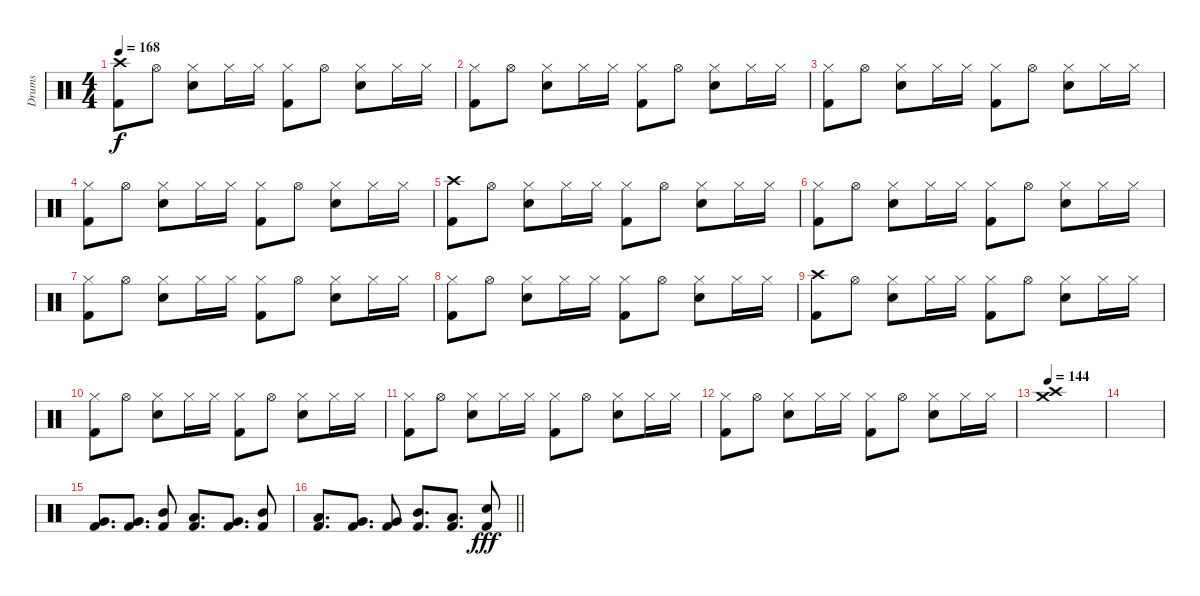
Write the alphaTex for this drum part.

\track ("Drums" "Drums") {instrument percussion}
\staff {score}
\articulation defaults
\ts (4 4)
\tempo 168
\clef neutral
\ks c
("Crash high (hit)" "Kick (hit) 2").8{dy f} "Hi-Hat (open)".8 ("Hi-Hat (closed)" "Electric Snare (hit)").8 "Hi-Hat (closed)".16 "Hi-Hat (closed)".16 ("Hi-Hat (closed)" "Kick (hit) 2").8 "Hi-Hat (open)".8 ("Hi-Hat (closed)" "Electric Snare (hit)").8 "Hi-Hat (closed)".16 "Hi-Hat (closed)".16 |
("Hi-Hat (closed)" "Kick (hit) 2").8 "Hi-Hat (open)".8 ("Hi-Hat (closed)" "Electric Snare (hit)").8 "Hi-Hat (closed)".16 "Hi-Hat (closed)".16 ("Hi-Hat (closed)" "Kick (hit) 2").8 "Hi-Hat (open)".8 ("Hi-Hat (closed)" "Electric Snare (hit)").8 "Hi-Hat (closed)".16 "Hi-Hat (closed)".16 |
("Hi-Hat (closed)" "Kick (hit) 2").8 "Hi-Hat (open)".8 ("Hi-Hat (closed)" "Electric Snare (hit)").8 "Hi-Hat (closed)".16 "Hi-Hat (closed)".16 ("Hi-Hat (closed)" "Kick (hit) 2").8 "Hi-Hat (open)".8 ("Hi-Hat (closed)" "Electric Snare (hit)").8 "Hi-Hat (closed)".16 "Hi-Hat (closed)".16 |
("Hi-Hat (closed)" "Kick (hit) 2").8 "Hi-Hat (open)".8 ("Hi-Hat (closed)" "Electric Snare (hit)").8 "Hi-Hat (closed)".16 "Hi-Hat (closed)".16 ("Hi-Hat (closed)" "Kick (hit) 2").8 "Hi-Hat (open)".8 ("Hi-Hat (closed)" "Electric Snare (hit)").8 "Hi-Hat (closed)".16 "Hi-Hat (closed)".16 |
("Crash high (hit)" "Kick (hit) 2").8 "Hi-Hat (open)".8 ("Hi-Hat (closed)" "Electric Snare (hit)").8 "Hi-Hat (closed)".16 "Hi-Hat (closed)".16 ("Hi-Hat (closed)" "Kick (hit) 2").8 "Hi-Hat (open)".8 ("Hi-Hat (closed)" "Electric Snare (hit)").8 "Hi-Hat (closed)".16 "Hi-Hat (closed)".16 |
("Hi-Hat (closed)" "Kick (hit) 2").8 "Hi-Hat (open)".8 ("Hi-Hat (closed)" "Electric Snare (hit)").8 "Hi-Hat (closed)".16 "Hi-Hat (closed)".16 ("Hi-Hat (closed)" "Kick (hit) 2").8 "Hi-Hat (open)".8 ("Hi-Hat (closed)" "Electric Snare (hit)").8 "Hi-Hat (closed)".16 "Hi-Hat (closed)".16 |
("Hi-Hat (closed)" "Kick (hit) 2").8 "Hi-Hat (open)".8 ("Hi-Hat (closed)" "Electric Snare (hit)").8 "Hi-Hat (closed)".16 "Hi-Hat (closed)".16 ("Hi-Hat (closed)" "Kick (hit) 2").8 "Hi-Hat (open)".8 ("Hi-Hat (closed)" "Electric Snare (hit)").8 "Hi-Hat (closed)".16 "Hi-Hat (closed)".16 |
("Hi-Hat (closed)" "Kick (hit) 2").8 "Hi-Hat (open)".8 ("Hi-Hat (closed)" "Electric Snare (hit)").8 "Hi-Hat (closed)".16 "Hi-Hat (closed)".16 ("Hi-Hat (closed)" "Kick (hit) 2").8 "Hi-Hat (open)".8 ("Hi-Hat (closed)" "Electric Snare (hit)").8 "Hi-Hat (closed)".16 "Hi-Hat (closed)".16 |
("Crash high (hit)" "Kick (hit) 2").8 "Hi-Hat (open)".8 ("Hi-Hat (closed)" "Electric Snare (hit)").8 "Hi-Hat (closed)".16 "Hi-Hat (closed)".16 ("Hi-Hat (closed)" "Kick (hit) 2").8 "Hi-Hat (open)".8 ("Hi-Hat (closed)" "Electric Snare (hit)").8 "Hi-Hat (closed)".16 "Hi-Hat (closed)".16 |
("Hi-Hat (closed)" "Kick (hit) 2").8 "Hi-Hat (open)".8 ("Hi-Hat (closed)" "Electric Snare (hit)").8 "Hi-Hat (closed)".16 "Hi-Hat (closed)".16 ("Hi-Hat (closed)" "Kick (hit) 2").8 "Hi-Hat (open)".8 ("Hi-Hat (closed)" "Electric Snare (hit)").8 "Hi-Hat (closed)".16 "Hi-Hat (closed)".16 |
("Hi-Hat (closed)" "Kick (hit) 2").8 "Hi-Hat (open)".8 ("Hi-Hat (closed)" "Electric Snare (hit)").8 "Hi-Hat (closed)".16 "Hi-Hat (closed)".16 ("Hi-Hat (closed)" "Kick (hit) 2").8 "Hi-Hat (open)".8 ("Hi-Hat (closed)" "Electric Snare (hit)").8 "Hi-Hat (closed)".16 "Hi-Hat (closed)".16 |
("Hi-Hat (closed)" "Kick (hit) 2").8 "Hi-Hat (open)".8 ("Hi-Hat (closed)" "Electric Snare (hit)").8 "Hi-Hat (closed)".16 "Hi-Hat (closed)".16 ("Hi-Hat (closed)" "Kick (hit) 2").8 "Hi-Hat (open)".8 ("Hi-Hat (closed)" "Electric Snare (hit)").8 "Hi-Hat (closed)".16 "Hi-Hat (closed)".16 |
\tempo 144
("Crash high (hit)" "Crash medium (hit)").1 |
|
("Very Low Tom (hit)" "Kick (hit) 2").8{d} ("Very Low Tom (hit)" "Kick (hit) 2").8{d} ("Mid Tom (hit)" "Kick (hit) 2").8 ("Low Tom (hit)" "Kick (hit) 2").8{d} ("Very Low Tom (hit)" "Kick (hit) 2").8{d} ("Mid Tom (hit)" "Kick (hit) 2").8 |
\barLineRight lightlight
("Low Tom (hit)" "Kick (hit) 2").8{d} ("Very Low Tom (hit)" "Kick (hit) 2").8{d} ("Very Low Tom (hit)" "Kick (hit) 2").8 ("Mid Tom (hit)" "Kick (hit) 2").8{d} ("Low Tom (hit)" "Kick (hit) 2").8{d} ("Electric Snare (hit)" "Kick (hit) 2").8{dy fff}
